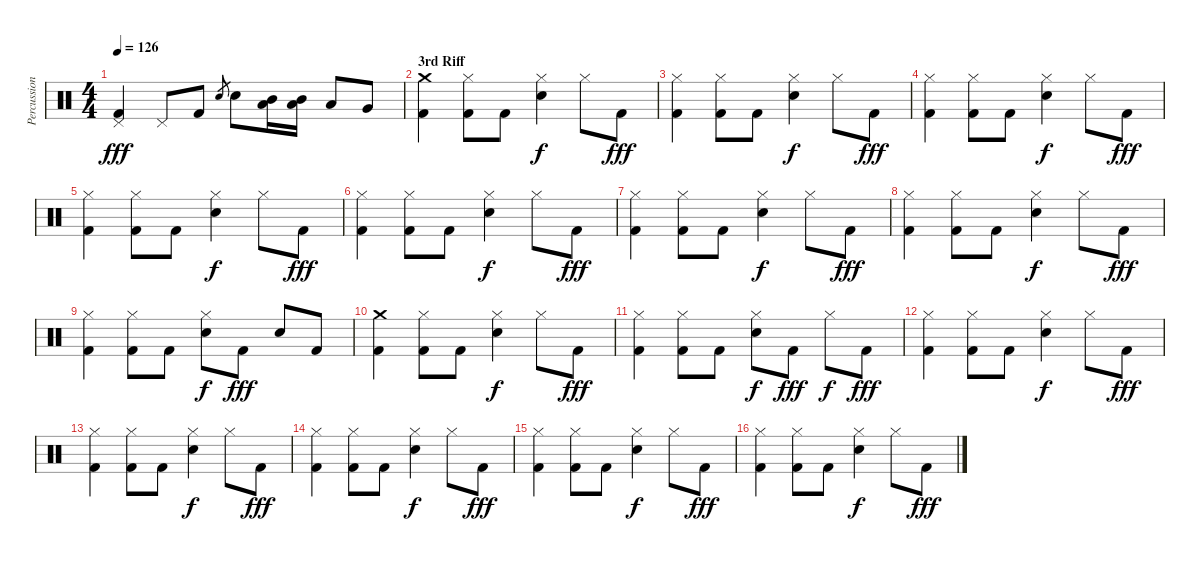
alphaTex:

\track ("Percussion" "Percussion") {instrument percussion}
\staff {score}
\articulation defaults
\ts (4 4)
\tempo 126
\clef neutral
\ks c
("Pedal Hi-Hat (hit)" "Kick (hit) 2").4{dy fff} "Pedal Hi-Hat (hit)".8 "Kick (hit) 2".8 "Electric Snare (hit)".8{gr} "Electric Snare (hit)".8 ("Low Tom (hit)" "Mid Tom (hit)").16 ("Low Tom (hit)" "Mid Tom (hit)").16 "Low Tom (hit)".8 "Very Low Tom (hit)".8 |
\section ("" "3rd Riff")
("Crash medium (hit)" "Kick (hit) 2").4 ("Hi-Hat (closed)" "Kick (hit) 2").8 "Kick (hit) 2".8 ("Hi-Hat (closed)" "Electric Snare (hit)").4{dy f} "Hi-Hat (closed)".8 "Kick (hit) 2".8{dy fff} |
("Hi-Hat (closed)" "Kick (hit) 2").4 ("Hi-Hat (closed)" "Kick (hit) 2").8 "Kick (hit) 2".8 ("Hi-Hat (closed)" "Electric Snare (hit)").4{dy f} "Hi-Hat (closed)".8 "Kick (hit) 2".8{dy fff} |
("Hi-Hat (closed)" "Kick (hit) 2").4 ("Hi-Hat (closed)" "Kick (hit) 2").8 "Kick (hit) 2".8 ("Hi-Hat (closed)" "Electric Snare (hit)").4{dy f} "Hi-Hat (closed)".8 "Kick (hit) 2".8{dy fff} |
("Hi-Hat (closed)" "Kick (hit) 2").4 ("Hi-Hat (closed)" "Kick (hit) 2").8 "Kick (hit) 2".8 ("Hi-Hat (closed)" "Electric Snare (hit)").4{dy f} "Hi-Hat (closed)".8 "Kick (hit) 2".8{dy fff} |
("Hi-Hat (closed)" "Kick (hit) 2").4 ("Hi-Hat (closed)" "Kick (hit) 2").8 "Kick (hit) 2".8 ("Hi-Hat (closed)" "Electric Snare (hit)").4{dy f} "Hi-Hat (closed)".8 "Kick (hit) 2".8{dy fff} |
("Hi-Hat (closed)" "Kick (hit) 2").4 ("Hi-Hat (closed)" "Kick (hit) 2").8 "Kick (hit) 2".8 ("Hi-Hat (closed)" "Electric Snare (hit)").4{dy f} "Hi-Hat (closed)".8 "Kick (hit) 2".8{dy fff} |
("Hi-Hat (closed)" "Kick (hit) 2").4 ("Hi-Hat (closed)" "Kick (hit) 2").8 "Kick (hit) 2".8 ("Hi-Hat (closed)" "Electric Snare (hit)").4{dy f} "Hi-Hat (closed)".8 "Kick (hit) 2".8{dy fff} |
("Hi-Hat (closed)" "Kick (hit) 2").4 ("Hi-Hat (closed)" "Kick (hit) 2").8 "Kick (hit) 2".8 ("Hi-Hat (closed)" "Electric Snare (hit)").8{dy f} "Kick (hit) 2".8{dy fff} "Electric Snare (hit)".8 "Kick (hit) 2".8 |
("Crash medium (hit)" "Kick (hit) 2").4 ("Hi-Hat (closed)" "Kick (hit) 2").8 "Kick (hit) 2".8 ("Hi-Hat (closed)" "Electric Snare (hit)").4{dy f} "Hi-Hat (closed)".8 "Kick (hit) 2".8{dy fff} |
("Hi-Hat (closed)" "Kick (hit) 2").4 ("Hi-Hat (closed)" "Kick (hit) 2").8 "Kick (hit) 2".8 ("Hi-Hat (closed)" "Electric Snare (hit)").8{dy f} "Kick (hit) 2".8{dy fff} "Hi-Hat (closed)".8{dy f} "Kick (hit) 2".8{dy fff} |
("Hi-Hat (closed)" "Kick (hit) 2").4 ("Hi-Hat (closed)" "Kick (hit) 2").8 "Kick (hit) 2".8 ("Hi-Hat (closed)" "Electric Snare (hit)").4{dy f} "Hi-Hat (closed)".8 "Kick (hit) 2".8{dy fff} |
("Hi-Hat (closed)" "Kick (hit) 2").4 ("Hi-Hat (closed)" "Kick (hit) 2").8 "Kick (hit) 2".8 ("Hi-Hat (closed)" "Electric Snare (hit)").4{dy f} "Hi-Hat (closed)".8 "Kick (hit) 2".8{dy fff} |
("Hi-Hat (closed)" "Kick (hit) 2").4 ("Hi-Hat (closed)" "Kick (hit) 2").8 "Kick (hit) 2".8 ("Hi-Hat (closed)" "Electric Snare (hit)").4{dy f} "Hi-Hat (closed)".8 "Kick (hit) 2".8{dy fff} |
("Hi-Hat (closed)" "Kick (hit) 2").4 ("Hi-Hat (closed)" "Kick (hit) 2").8 "Kick (hit) 2".8 ("Hi-Hat (closed)" "Electric Snare (hit)").4{dy f} "Hi-Hat (closed)".8 "Kick (hit) 2".8{dy fff} |
("Hi-Hat (closed)" "Kick (hit) 2").4 ("Hi-Hat (closed)" "Kick (hit) 2").8 "Kick (hit) 2".8 ("Hi-Hat (closed)" "Electric Snare (hit)").4{dy f} "Hi-Hat (closed)".8 "Kick (hit) 2".8{dy fff}
